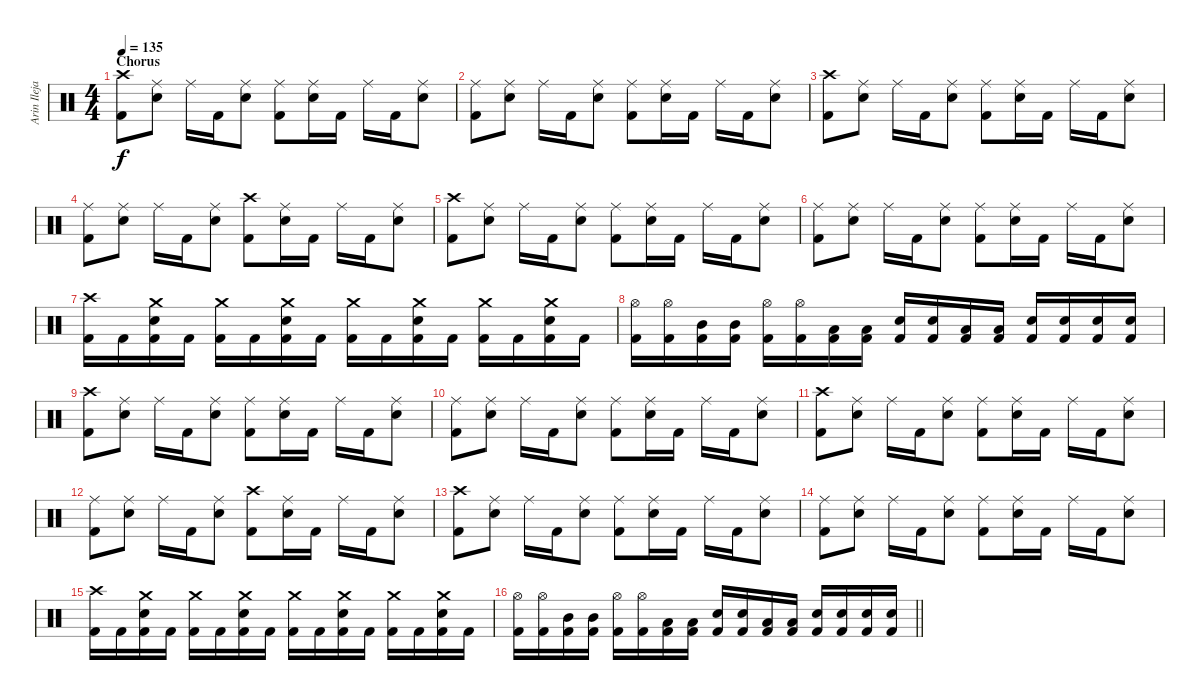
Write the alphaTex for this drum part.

\track ("Arin Ilejay" "Arin Ileja") {instrument percussion}
\staff {score}
\articulation defaults
\ts (4 4)
\section ("" "Chorus")
\tempo 135
\clef neutral
\ks c
("Crash high (hit)" "Kick (hit) 2").8{dy f} ("Ride (middle)" "Electric Snare (hit)").8 "Ride (middle)".16 "Kick (hit) 2".16 ("Ride (middle)" "Electric Snare (hit)").8 ("Ride (middle)" "Kick (hit) 2").8 ("Ride (middle)" "Electric Snare (hit)").16 "Kick (hit) 2".16 "Ride (middle)".16 "Kick (hit) 2".16 ("Ride (middle)" "Electric Snare (hit)").8 |
("Ride (middle)" "Kick (hit) 2").8 ("Ride (middle)" "Electric Snare (hit)").8 "Ride (middle)".16 "Kick (hit) 2".16 ("Ride (middle)" "Electric Snare (hit)").8 ("Ride (middle)" "Kick (hit) 2").8 ("Ride (middle)" "Electric Snare (hit)").16 "Kick (hit) 2".16 "Ride (middle)".16 "Kick (hit) 2".16 ("Ride (middle)" "Electric Snare (hit)").8 |
("Crash high (hit)" "Kick (hit) 2").8 ("Ride (middle)" "Electric Snare (hit)").8 "Ride (middle)".16 "Kick (hit) 2".16 ("Ride (middle)" "Electric Snare (hit)").8 ("Ride (middle)" "Kick (hit) 2").8 ("Ride (middle)" "Electric Snare (hit)").16 "Kick (hit) 2".16 "Ride (middle)".16 "Kick (hit) 2".16 ("Ride (middle)" "Electric Snare (hit)").8 |
("Ride (middle)" "Kick (hit) 2").8 ("Ride (middle)" "Electric Snare (hit)").8 "Ride (middle)".16 "Kick (hit) 2".16 ("Ride (middle)" "Electric Snare (hit)").8 ("Crash high (hit)" "Kick (hit) 2").8 ("Ride (middle)" "Electric Snare (hit)").16 "Kick (hit) 2".16 "Ride (middle)".16 "Kick (hit) 2".16 ("Ride (middle)" "Electric Snare (hit)").8 |
("Crash high (hit)" "Kick (hit) 2").8 ("Ride (middle)" "Electric Snare (hit)").8 "Ride (middle)".16 "Kick (hit) 2".16 ("Ride (middle)" "Electric Snare (hit)").8 ("Ride (middle)" "Kick (hit) 2").8 ("Ride (middle)" "Electric Snare (hit)").16 "Kick (hit) 2".16 "Ride (middle)".16 "Kick (hit) 2".16 ("Ride (middle)" "Electric Snare (hit)").8 |
("Ride (middle)" "Kick (hit) 2").8 ("Ride (middle)" "Electric Snare (hit)").8 "Ride (middle)".16 "Kick (hit) 2".16 ("Ride (middle)" "Electric Snare (hit)").8 ("Ride (middle)" "Kick (hit) 2").8 ("Ride (middle)" "Electric Snare (hit)").16 "Kick (hit) 2".16 "Ride (middle)".16 "Kick (hit) 2".16 ("Ride (middle)" "Electric Snare (hit)").8 |
("Crash high (hit)" "Kick (hit) 2").16 "Kick (hit) 2".16 ("Crash medium (hit)" "Electric Snare (hit)" "Kick (hit) 2").16 "Kick (hit) 2".16 ("Crash medium (hit)" "Kick (hit) 2").16 "Kick (hit) 2".16 ("Crash medium (hit)" "Electric Snare (hit)" "Kick (hit) 2").16 "Kick (hit) 2".16 ("Crash medium (hit)" "Kick (hit) 2").16 "Kick (hit) 2".16 ("Crash medium (hit)" "Electric Snare (hit)" "Kick (hit) 2").16 "Kick (hit) 2".16 ("Crash medium (hit)" "Kick (hit) 2").16 "Kick (hit) 2".16 ("Crash medium (hit)" "Electric Snare (hit)" "Kick (hit) 2").16 "Kick (hit) 2".16 |
("Hi-Hat (open)" "Kick (hit) 2").16 ("Hi-Hat (open)" "Kick (hit) 2").16 ("Mid Tom (hit)" "Kick (hit) 2").16 ("Mid Tom (hit)" "Kick (hit) 2").16 ("Hi-Hat (open)" "Kick (hit) 2").16 ("Hi-Hat (open)" "Kick (hit) 2").16 ("Low Tom (hit)" "Kick (hit) 2").16 ("Low Tom (hit)" "Kick (hit) 2").16 ("Electric Snare (hit)" "Kick (hit) 2").16 ("Electric Snare (hit)" "Kick (hit) 2").16 ("Low Tom (hit)" "Kick (hit) 2").16 ("Low Tom (hit)" "Kick (hit) 2").16 ("Electric Snare (hit)" "Kick (hit) 2").16 ("Electric Snare (hit)" "Kick (hit) 2").16 ("Electric Snare (hit)" "Kick (hit) 2").16 ("Electric Snare (hit)" "Kick (hit) 2").16 |
("Crash high (hit)" "Kick (hit) 2").8 ("Ride (middle)" "Electric Snare (hit)").8 "Ride (middle)".16 "Kick (hit) 2".16 ("Ride (middle)" "Electric Snare (hit)").8 ("Ride (middle)" "Kick (hit) 2").8 ("Ride (middle)" "Electric Snare (hit)").16 "Kick (hit) 2".16 "Ride (middle)".16 "Kick (hit) 2".16 ("Ride (middle)" "Electric Snare (hit)").8 |
("Ride (middle)" "Kick (hit) 2").8 ("Ride (middle)" "Electric Snare (hit)").8 "Ride (middle)".16 "Kick (hit) 2".16 ("Ride (middle)" "Electric Snare (hit)").8 ("Ride (middle)" "Kick (hit) 2").8 ("Ride (middle)" "Electric Snare (hit)").16 "Kick (hit) 2".16 "Ride (middle)".16 "Kick (hit) 2".16 ("Ride (middle)" "Electric Snare (hit)").8 |
("Crash high (hit)" "Kick (hit) 2").8 ("Ride (middle)" "Electric Snare (hit)").8 "Ride (middle)".16 "Kick (hit) 2".16 ("Ride (middle)" "Electric Snare (hit)").8 ("Ride (middle)" "Kick (hit) 2").8 ("Ride (middle)" "Electric Snare (hit)").16 "Kick (hit) 2".16 "Ride (middle)".16 "Kick (hit) 2".16 ("Ride (middle)" "Electric Snare (hit)").8 |
("Ride (middle)" "Kick (hit) 2").8 ("Ride (middle)" "Electric Snare (hit)").8 "Ride (middle)".16 "Kick (hit) 2".16 ("Ride (middle)" "Electric Snare (hit)").8 ("Crash high (hit)" "Kick (hit) 2").8 ("Ride (middle)" "Electric Snare (hit)").16 "Kick (hit) 2".16 "Ride (middle)".16 "Kick (hit) 2".16 ("Ride (middle)" "Electric Snare (hit)").8 |
("Crash high (hit)" "Kick (hit) 2").8 ("Ride (middle)" "Electric Snare (hit)").8 "Ride (middle)".16 "Kick (hit) 2".16 ("Ride (middle)" "Electric Snare (hit)").8 ("Ride (middle)" "Kick (hit) 2").8 ("Ride (middle)" "Electric Snare (hit)").16 "Kick (hit) 2".16 "Ride (middle)".16 "Kick (hit) 2".16 ("Ride (middle)" "Electric Snare (hit)").8 |
("Ride (middle)" "Kick (hit) 2").8 ("Ride (middle)" "Electric Snare (hit)").8 "Ride (middle)".16 "Kick (hit) 2".16 ("Ride (middle)" "Electric Snare (hit)").8 ("Ride (middle)" "Kick (hit) 2").8 ("Ride (middle)" "Electric Snare (hit)").16 "Kick (hit) 2".16 "Ride (middle)".16 "Kick (hit) 2".16 ("Ride (middle)" "Electric Snare (hit)").8 |
("Crash high (hit)" "Kick (hit) 2").16 "Kick (hit) 2".16 ("Crash medium (hit)" "Electric Snare (hit)" "Kick (hit) 2").16 "Kick (hit) 2".16 ("Crash medium (hit)" "Kick (hit) 2").16 "Kick (hit) 2".16 ("Crash medium (hit)" "Electric Snare (hit)" "Kick (hit) 2").16 "Kick (hit) 2".16 ("Crash medium (hit)" "Kick (hit) 2").16 "Kick (hit) 2".16 ("Crash medium (hit)" "Electric Snare (hit)" "Kick (hit) 2").16 "Kick (hit) 2".16 ("Crash medium (hit)" "Kick (hit) 2").16 "Kick (hit) 2".16 ("Crash medium (hit)" "Electric Snare (hit)" "Kick (hit) 2").16 "Kick (hit) 2".16 |
\barLineRight lightlight
("Hi-Hat (open)" "Kick (hit) 2").16 ("Hi-Hat (open)" "Kick (hit) 2").16 ("Mid Tom (hit)" "Kick (hit) 2").16 ("Mid Tom (hit)" "Kick (hit) 2").16 ("Hi-Hat (open)" "Kick (hit) 2").16 ("Hi-Hat (open)" "Kick (hit) 2").16 ("Low Tom (hit)" "Kick (hit) 2").16 ("Low Tom (hit)" "Kick (hit) 2").16 ("Electric Snare (hit)" "Kick (hit) 2").16 ("Electric Snare (hit)" "Kick (hit) 2").16 ("Low Tom (hit)" "Kick (hit) 2").16 ("Low Tom (hit)" "Kick (hit) 2").16 ("Electric Snare (hit)" "Kick (hit) 2").16 ("Electric Snare (hit)" "Kick (hit) 2").16 ("Electric Snare (hit)" "Kick (hit) 2").16 ("Electric Snare (hit)" "Kick (hit) 2").16
